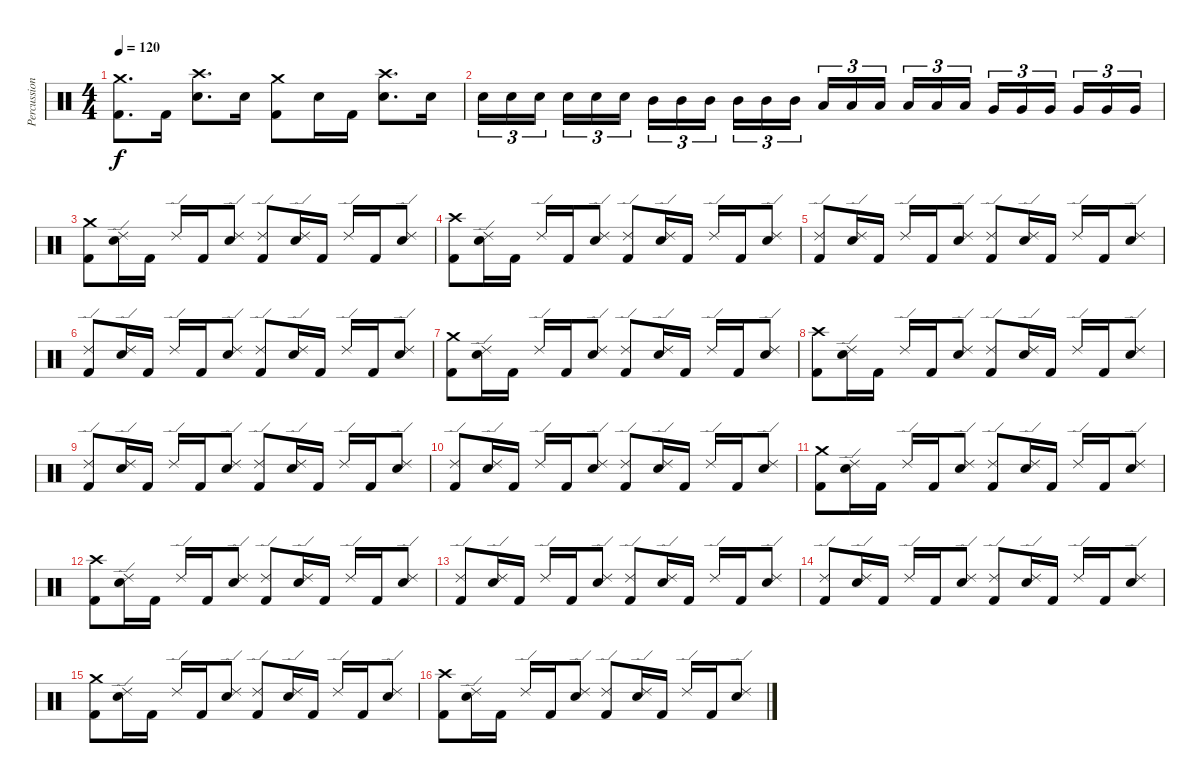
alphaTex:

\track ("Percussion" "Percussion") {instrument percussion}
\staff {score}
\articulation defaults
\ts (4 4)
\tempo 120
\clef neutral
\ks c
("Crash medium (hit)" "Kick (hit) 2").8{d dy f} "Kick (hit) 2".16 ("Crash high (hit)" "Electric Snare (hit)").8{d} "Electric Snare (hit)".16 ("Crash medium (hit)" "Kick (hit) 2").8 "Electric Snare (hit)".16 "Kick (hit) 2".16 ("Crash high (hit)" "Electric Snare (hit)").8{d} "Electric Snare (hit)".16 |
"Electric Snare (hit)".16{tu (3 2)} "Electric Snare (hit)".16{tu (3 2)} "Electric Snare (hit)".16{tu (3 2) beam splitsecondary} "Electric Snare (hit)".16{tu (3 2)} "Electric Snare (hit)".16{tu (3 2)} "Electric Snare (hit)".16{tu (3 2)} "Mid Tom (hit)".16{tu (3 2)} "Mid Tom (hit)".16{tu (3 2)} "Mid Tom (hit)".16{tu (3 2) beam splitsecondary} "Mid Tom (hit)".16{tu (3 2)} "Mid Tom (hit)".16{tu (3 2)} "Mid Tom (hit)".16{tu (3 2)} "Low Tom (hit)".16{tu (3 2)} "Low Tom (hit)".16{tu (3 2)} "Low Tom (hit)".16{tu (3 2) beam splitsecondary} "Low Tom (hit)".16{tu (3 2)} "Low Tom (hit)".16{tu (3 2)} "Low Tom (hit)".16{tu (3 2)} "Very Low Tom (hit)".16{tu (3 2)} "Very Low Tom (hit)".16{tu (3 2)} "Very Low Tom (hit)".16{tu (3 2) beam splitsecondary} "Very Low Tom (hit)".16{tu (3 2)} "Very Low Tom (hit)".16{tu (3 2)} "Very Low Tom (hit)".16{tu (3 2)} |
("Crash medium (hit)" "Kick (hit) 2").8 ("Ride (edge) 2" "Electric Snare (hit)").16 "Kick (hit) 2".16 "Ride (edge) 2".16 "Kick (hit) 2".16 ("Ride (edge) 2" "Electric Snare (hit)").8 ("Ride (edge) 2" "Kick (hit) 2").8 ("Ride (edge) 2" "Electric Snare (hit)").16 "Kick (hit) 2".16 "Ride (edge) 2".16 "Kick (hit) 2".16 ("Ride (edge) 2" "Electric Snare (hit)").8 |
("Crash high (hit)" "Kick (hit) 2").8 ("Ride (edge) 2" "Electric Snare (hit)").16 "Kick (hit) 2".16 "Ride (edge) 2".16 "Kick (hit) 2".16 ("Ride (edge) 2" "Electric Snare (hit)").8 ("Ride (edge) 2" "Kick (hit) 2").8 ("Ride (edge) 2" "Electric Snare (hit)").16 "Kick (hit) 2".16 "Ride (edge) 2".16 "Kick (hit) 2".16 ("Ride (edge) 2" "Electric Snare (hit)").8 |
("Ride (edge) 2" "Kick (hit) 2").8 ("Ride (edge) 2" "Electric Snare (hit)").16 "Kick (hit) 2".16 "Ride (edge) 2".16 "Kick (hit) 2".16 ("Ride (edge) 2" "Electric Snare (hit)").8 ("Ride (edge) 2" "Kick (hit) 2").8 ("Ride (edge) 2" "Electric Snare (hit)").16 "Kick (hit) 2".16 "Ride (edge) 2".16 "Kick (hit) 2".16 ("Ride (edge) 2" "Electric Snare (hit)").8 |
("Ride (edge) 2" "Kick (hit) 2").8 ("Ride (edge) 2" "Electric Snare (hit)").16 "Kick (hit) 2".16 "Ride (edge) 2".16 "Kick (hit) 2".16 ("Ride (edge) 2" "Electric Snare (hit)").8 ("Ride (edge) 2" "Kick (hit) 2").8 ("Ride (edge) 2" "Electric Snare (hit)").16 "Kick (hit) 2".16 "Ride (edge) 2".16 "Kick (hit) 2".16 ("Ride (edge) 2" "Electric Snare (hit)").8 |
("Crash medium (hit)" "Kick (hit) 2").8 ("Ride (edge) 2" "Electric Snare (hit)").16 "Kick (hit) 2".16 "Ride (edge) 2".16 "Kick (hit) 2".16 ("Ride (edge) 2" "Electric Snare (hit)").8 ("Ride (edge) 2" "Kick (hit) 2").8 ("Ride (edge) 2" "Electric Snare (hit)").16 "Kick (hit) 2".16 "Ride (edge) 2".16 "Kick (hit) 2".16 ("Ride (edge) 2" "Electric Snare (hit)").8 |
("Crash high (hit)" "Kick (hit) 2").8 ("Ride (edge) 2" "Electric Snare (hit)").16 "Kick (hit) 2".16 "Ride (edge) 2".16 "Kick (hit) 2".16 ("Ride (edge) 2" "Electric Snare (hit)").8 ("Ride (edge) 2" "Kick (hit) 2").8 ("Ride (edge) 2" "Electric Snare (hit)").16 "Kick (hit) 2".16 "Ride (edge) 2".16 "Kick (hit) 2".16 ("Ride (edge) 2" "Electric Snare (hit)").8 |
("Ride (edge) 2" "Kick (hit) 2").8 ("Ride (edge) 2" "Electric Snare (hit)").16 "Kick (hit) 2".16 "Ride (edge) 2".16 "Kick (hit) 2".16 ("Ride (edge) 2" "Electric Snare (hit)").8 ("Ride (edge) 2" "Kick (hit) 2").8 ("Ride (edge) 2" "Electric Snare (hit)").16 "Kick (hit) 2".16 "Ride (edge) 2".16 "Kick (hit) 2".16 ("Ride (edge) 2" "Electric Snare (hit)").8 |
("Ride (edge) 2" "Kick (hit) 2").8 ("Ride (edge) 2" "Electric Snare (hit)").16 "Kick (hit) 2".16 "Ride (edge) 2".16 "Kick (hit) 2".16 ("Ride (edge) 2" "Electric Snare (hit)").8 ("Ride (edge) 2" "Kick (hit) 2").8 ("Ride (edge) 2" "Electric Snare (hit)").16 "Kick (hit) 2".16 "Ride (edge) 2".16 "Kick (hit) 2".16 ("Ride (edge) 2" "Electric Snare (hit)").8 |
("Crash medium (hit)" "Kick (hit) 2").8 ("Ride (edge) 2" "Electric Snare (hit)").16 "Kick (hit) 2".16 "Ride (edge) 2".16 "Kick (hit) 2".16 ("Ride (edge) 2" "Electric Snare (hit)").8 ("Ride (edge) 2" "Kick (hit) 2").8 ("Ride (edge) 2" "Electric Snare (hit)").16 "Kick (hit) 2".16 "Ride (edge) 2".16 "Kick (hit) 2".16 ("Ride (edge) 2" "Electric Snare (hit)").8 |
("Crash high (hit)" "Kick (hit) 2").8 ("Ride (edge) 2" "Electric Snare (hit)").16 "Kick (hit) 2".16 "Ride (edge) 2".16 "Kick (hit) 2".16 ("Ride (edge) 2" "Electric Snare (hit)").8 ("Ride (edge) 2" "Kick (hit) 2").8 ("Ride (edge) 2" "Electric Snare (hit)").16 "Kick (hit) 2".16 "Ride (edge) 2".16 "Kick (hit) 2".16 ("Ride (edge) 2" "Electric Snare (hit)").8 |
("Ride (edge) 2" "Kick (hit) 2").8 ("Ride (edge) 2" "Electric Snare (hit)").16 "Kick (hit) 2".16 "Ride (edge) 2".16 "Kick (hit) 2".16 ("Ride (edge) 2" "Electric Snare (hit)").8 ("Ride (edge) 2" "Kick (hit) 2").8 ("Ride (edge) 2" "Electric Snare (hit)").16 "Kick (hit) 2".16 "Ride (edge) 2".16 "Kick (hit) 2".16 ("Ride (edge) 2" "Electric Snare (hit)").8 |
("Ride (edge) 2" "Kick (hit) 2").8 ("Ride (edge) 2" "Electric Snare (hit)").16 "Kick (hit) 2".16 "Ride (edge) 2".16 "Kick (hit) 2".16 ("Ride (edge) 2" "Electric Snare (hit)").8 ("Ride (edge) 2" "Kick (hit) 2").8 ("Ride (edge) 2" "Electric Snare (hit)").16 "Kick (hit) 2".16 "Ride (edge) 2".16 "Kick (hit) 2".16 ("Ride (edge) 2" "Electric Snare (hit)").8 |
("Crash medium (hit)" "Kick (hit) 2").8 ("Ride (edge) 2" "Electric Snare (hit)").16 "Kick (hit) 2".16 "Ride (edge) 2".16 "Kick (hit) 2".16 ("Ride (edge) 2" "Electric Snare (hit)").8 ("Ride (edge) 2" "Kick (hit) 2").8 ("Ride (edge) 2" "Electric Snare (hit)").16 "Kick (hit) 2".16 "Ride (edge) 2".16 "Kick (hit) 2".16 ("Ride (edge) 2" "Electric Snare (hit)").8 |
("Crash high (hit)" "Kick (hit) 2").8 ("Ride (edge) 2" "Electric Snare (hit)").16 "Kick (hit) 2".16 "Ride (edge) 2".16 "Kick (hit) 2".16 ("Ride (edge) 2" "Electric Snare (hit)").8 ("Ride (edge) 2" "Kick (hit) 2").8 ("Ride (edge) 2" "Electric Snare (hit)").16 "Kick (hit) 2".16 "Ride (edge) 2".16 "Kick (hit) 2".16 ("Ride (edge) 2" "Electric Snare (hit)").8
